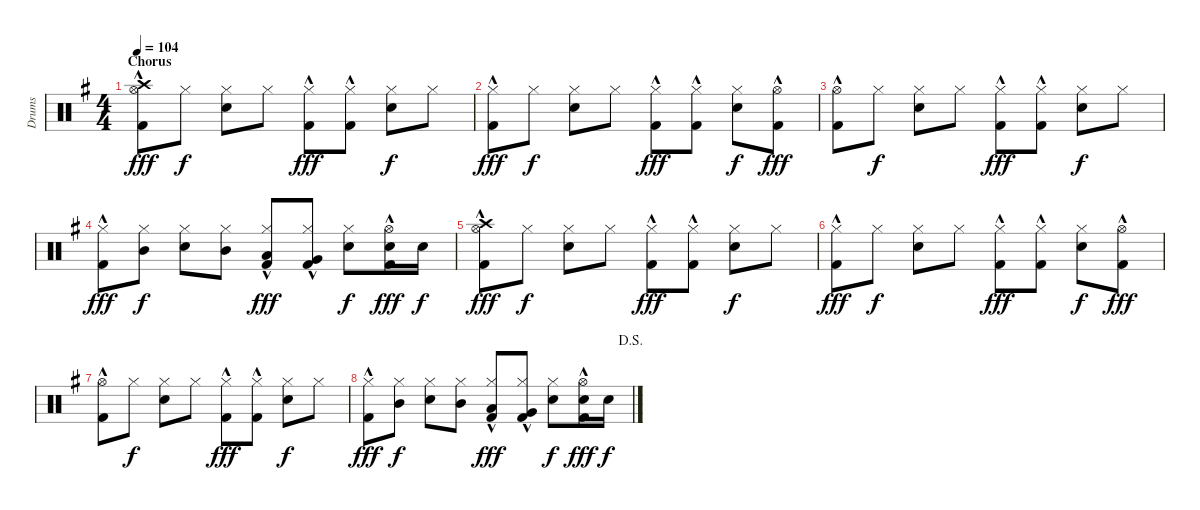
\track ("Drums" "Drums") {instrument percussion}
\staff {score}
\articulation defaults
\ts (4 4)
\section ("" "Chorus")
\tempo 104
\clef neutral
\ks g
("Hi-Hat (open)" "Crash high (hit)" "Kick (hit) 2"{hac}).8{dy fff} "Hi-Hat (closed)".8{dy f} ("Snare (hit) 2" "Hi-Hat (closed)").8 "Hi-Hat (closed)".8 ("Hi-Hat (closed)" "Kick (hit) 2"{hac}).8{dy fff} ("Hi-Hat (closed)" "Kick (hit) 2"{hac}).8 ("Snare (hit) 2" "Hi-Hat (closed)").8{dy f} "Hi-Hat (closed)".8 |
("Hi-Hat (closed)" "Kick (hit) 2"{hac}).8{dy fff} "Hi-Hat (closed)".8{dy f} ("Snare (hit) 2" "Hi-Hat (closed)").8 "Hi-Hat (closed)".8 ("Hi-Hat (closed)" "Kick (hit) 2"{hac}).8{dy fff} ("Hi-Hat (closed)" "Kick (hit) 2"{hac}).8 ("Snare (hit) 2" "Hi-Hat (closed)").8{dy f} ("Hi-Hat (open)" "Kick (hit) 2"{hac}).8{dy fff} |
("Hi-Hat (open)" "Kick (hit) 2"{hac}).8 "Hi-Hat (closed)".8{dy f} ("Snare (hit) 2" "Hi-Hat (closed)").8 "Hi-Hat (closed)".8 ("Hi-Hat (closed)" "Kick (hit) 2"{hac}).8{dy fff} ("Hi-Hat (closed)" "Kick (hit) 2"{hac}).8 ("Snare (hit) 2" "Hi-Hat (closed)").8{dy f} "Hi-Hat (closed)".8 |
("Hi-Hat (closed)" "Kick (hit) 2"{hac}).8{dy fff} ("Hi-Hat (closed)" "Mid Tom (hit)").8{dy f} ("Snare (hit) 2" "Hi-Hat (closed)").8 ("Hi-Hat (closed)" "Mid Tom (hit)").8 ("Hi-Hat (closed)" "Low Tom (hit)" "Kick (hit) 2"{hac}).8{dy fff} ("Hi-Hat (closed)" "Very Low Tom (hit)" "Kick (hit) 2"{hac}).8 ("Snare (hit) 2" "Hi-Hat (closed)").8{dy f} ("Snare (hit) 2" "Hi-Hat (open)" "Kick (hit) 2"{hac}).16{dy fff} "Snare (hit) 2".16{dy f} |
("Hi-Hat (open)" "Crash high (hit)" "Kick (hit) 2"{hac}).8{dy fff} "Hi-Hat (closed)".8{dy f} ("Snare (hit) 2" "Hi-Hat (closed)").8 "Hi-Hat (closed)".8 ("Hi-Hat (closed)" "Kick (hit) 2"{hac}).8{dy fff} ("Hi-Hat (closed)" "Kick (hit) 2"{hac}).8 ("Snare (hit) 2" "Hi-Hat (closed)").8{dy f} "Hi-Hat (closed)".8 |
("Hi-Hat (closed)" "Kick (hit) 2"{hac}).8{dy fff} "Hi-Hat (closed)".8{dy f} ("Snare (hit) 2" "Hi-Hat (closed)").8 "Hi-Hat (closed)".8 ("Hi-Hat (closed)" "Kick (hit) 2"{hac}).8{dy fff} ("Hi-Hat (closed)" "Kick (hit) 2"{hac}).8 ("Snare (hit) 2" "Hi-Hat (closed)").8{dy f} ("Hi-Hat (open)" "Kick (hit) 2"{hac}).8{dy fff} |
("Hi-Hat (open)" "Kick (hit) 2"{hac}).8 "Hi-Hat (closed)".8{dy f} ("Snare (hit) 2" "Hi-Hat (closed)").8 "Hi-Hat (closed)".8 ("Hi-Hat (closed)" "Kick (hit) 2"{hac}).8{dy fff} ("Hi-Hat (closed)" "Kick (hit) 2"{hac}).8 ("Snare (hit) 2" "Hi-Hat (closed)").8{dy f} "Hi-Hat (closed)".8 |
\jump dalsegno
("Hi-Hat (closed)" "Kick (hit) 2"{hac}).8{dy fff} ("Hi-Hat (closed)" "Mid Tom (hit)").8{dy f} ("Snare (hit) 2" "Hi-Hat (closed)").8 ("Hi-Hat (closed)" "Mid Tom (hit)").8 ("Hi-Hat (closed)" "Low Tom (hit)" "Kick (hit) 2"{hac}).8{dy fff} ("Hi-Hat (closed)" "Very Low Tom (hit)" "Kick (hit) 2"{hac}).8 ("Snare (hit) 2" "Hi-Hat (closed)").8{dy f} ("Snare (hit) 2" "Hi-Hat (open)" "Kick (hit) 2"{hac}).16{dy fff} "Snare (hit) 2".16{dy f}
